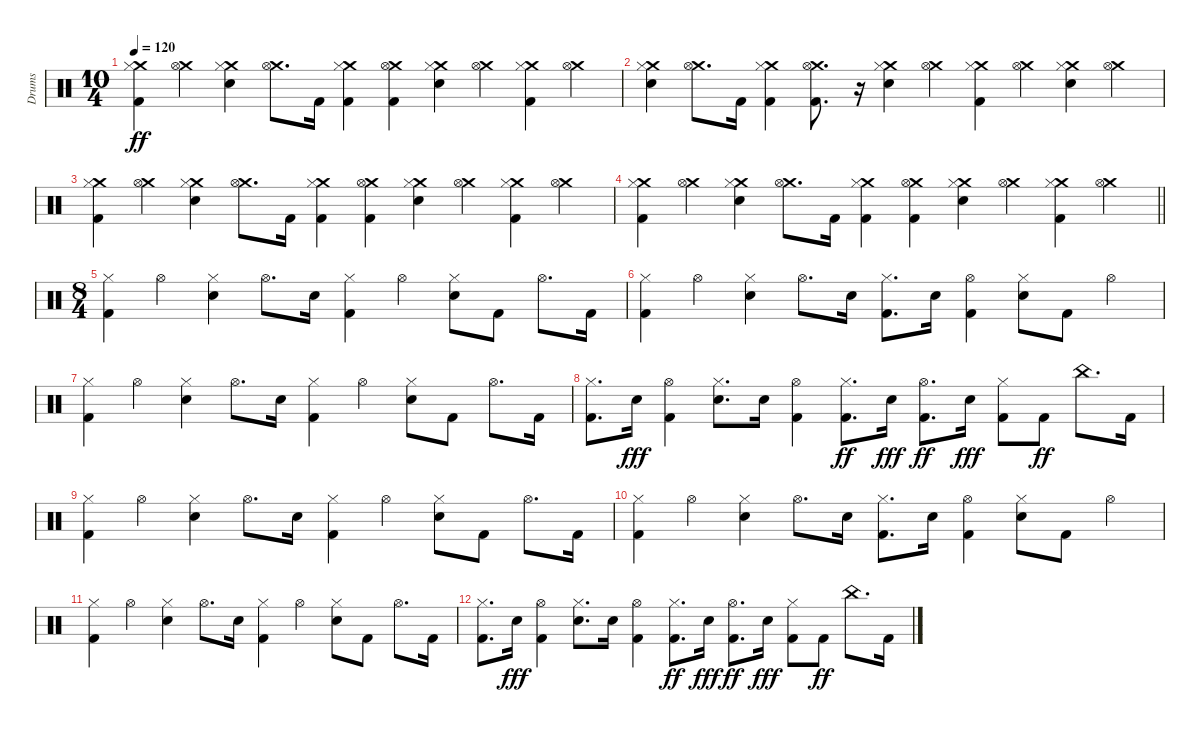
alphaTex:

\track ("Drums" "Drums") {instrument percussion}
\staff {score}
\articulation defaults
\ts (10 4)
\tempo 120
\clef neutral
\ks c
("Crash medium (hit)" "Hi-Hat (closed)" "Kick (hit) 2").4{dy ff} ("Crash medium (hit)" "Hi-Hat (open)").4 ("Crash medium (hit)" "Hi-Hat (closed)" "Electric Snare (hit)").4 ("Crash medium (hit)" "Hi-Hat (open)").8{d} "Kick (hit) 2".16 ("Crash medium (hit)" "Hi-Hat (closed)" "Kick (hit) 2").4 ("Crash medium (hit)" "Hi-Hat (open)" "Kick (hit) 2").4 ("Crash medium (hit)" "Hi-Hat (closed)" "Electric Snare (hit)").4 ("Crash medium (hit)" "Hi-Hat (open)").4 ("Crash medium (hit)" "Hi-Hat (closed)" "Kick (hit) 2").4 ("Crash medium (hit)" "Hi-Hat (open)").4 |
("Crash medium (hit)" "Hi-Hat (closed)" "Electric Snare (hit)").4 ("Crash medium (hit)" "Hi-Hat (open)").8{d} "Kick (hit) 2".16 ("Crash medium (hit)" "Hi-Hat (closed)" "Kick (hit) 2").4 ("Crash medium (hit)" "Hi-Hat (open)" "Kick (hit) 2").8{d} r.16 ("Crash medium (hit)" "Hi-Hat (closed)" "Electric Snare (hit)").4 ("Crash medium (hit)" "Hi-Hat (open)").4 ("Crash medium (hit)" "Hi-Hat (closed)" "Kick (hit) 2").4 ("Crash medium (hit)" "Hi-Hat (open)").4 ("Crash medium (hit)" "Hi-Hat (closed)" "Electric Snare (hit)").4 ("Crash medium (hit)" "Hi-Hat (open)").4 |
("Crash medium (hit)" "Hi-Hat (closed)" "Kick (hit) 2").4 ("Crash medium (hit)" "Hi-Hat (open)").4 ("Crash medium (hit)" "Hi-Hat (closed)" "Electric Snare (hit)").4 ("Crash medium (hit)" "Hi-Hat (open)").8{d} "Kick (hit) 2".16 ("Crash medium (hit)" "Hi-Hat (closed)" "Kick (hit) 2").4 ("Crash medium (hit)" "Hi-Hat (open)" "Kick (hit) 2").4 ("Crash medium (hit)" "Hi-Hat (closed)" "Electric Snare (hit)").4 ("Crash medium (hit)" "Hi-Hat (open)").4 ("Crash medium (hit)" "Hi-Hat (closed)" "Kick (hit) 2").4 ("Crash medium (hit)" "Hi-Hat (open)").4 |
\barLineRight lightlight
("Crash medium (hit)" "Hi-Hat (closed)" "Kick (hit) 2").4 ("Crash medium (hit)" "Hi-Hat (open)").4 ("Crash medium (hit)" "Hi-Hat (closed)" "Electric Snare (hit)").4 ("Crash medium (hit)" "Hi-Hat (open)").8{d} "Kick (hit) 2".16 ("Crash medium (hit)" "Hi-Hat (closed)" "Kick (hit) 2").4 ("Crash medium (hit)" "Hi-Hat (open)" "Kick (hit) 2").4 ("Crash medium (hit)" "Hi-Hat (closed)" "Electric Snare (hit)").4 ("Crash medium (hit)" "Hi-Hat (open)").4 ("Crash medium (hit)" "Hi-Hat (closed)" "Kick (hit) 2").4 ("Crash medium (hit)" "Hi-Hat (open)").4 |
\ts (8 4)
\section ("" "")
("Hi-Hat (closed)" "Kick (hit) 2").4 "Hi-Hat (open)".4 ("Hi-Hat (closed)" "Electric Snare (hit)").4 "Hi-Hat (open)".8{d} "Electric Snare (hit)".16 ("Hi-Hat (closed)" "Kick (hit) 2").4 "Hi-Hat (open)".4 ("Hi-Hat (closed)" "Electric Snare (hit)").8 "Kick (hit) 2".8 "Hi-Hat (open)".8{d} "Kick (hit) 2".16 |
("Hi-Hat (closed)" "Kick (hit) 2").4 "Hi-Hat (open)".4 ("Hi-Hat (closed)" "Electric Snare (hit)").4 "Hi-Hat (open)".8{d} "Electric Snare (hit)".16 ("Hi-Hat (closed)" "Kick (hit) 2").8{d} "Electric Snare (hit)".16 ("Hi-Hat (open)" "Kick (hit) 2").4 ("Hi-Hat (closed)" "Electric Snare (hit)").8 "Kick (hit) 2".8 "Hi-Hat (open)".4 |
("Hi-Hat (closed)" "Kick (hit) 2").4 "Hi-Hat (open)".4 ("Hi-Hat (closed)" "Electric Snare (hit)").4 "Hi-Hat (open)".8{d} "Electric Snare (hit)".16 ("Hi-Hat (closed)" "Kick (hit) 2").4 "Hi-Hat (open)".4 ("Hi-Hat (closed)" "Electric Snare (hit)").8 "Kick (hit) 2".8 "Hi-Hat (open)".8{d} "Kick (hit) 2".16 |
("Hi-Hat (closed)" "Kick (hit) 2").8{d} "Electric Snare (hit)".16{dy fff} ("Hi-Hat (open)" "Kick (hit) 2").4 ("Hi-Hat (closed)" "Electric Snare (hit)").8{d} "Electric Snare (hit)".16 ("Hi-Hat (open)" "Kick (hit) 2").4 ("Hi-Hat (closed)" "Kick (hit) 2").8{d dy ff} "Electric Snare (hit)".16{dy fff} ("Hi-Hat (open)" "Kick (hit) 2").8{d dy ff} "Electric Snare (hit)".16{dy fff} ("Hi-Hat (closed)" "Kick (hit) 2").8 "Kick (hit) 2".8{dy ff} "China (hit)".8{d} "Kick (hit) 2".16 |
("Hi-Hat (closed)" "Kick (hit) 2").4 "Hi-Hat (open)".4 ("Hi-Hat (closed)" "Electric Snare (hit)").4 "Hi-Hat (open)".8{d} "Electric Snare (hit)".16 ("Hi-Hat (closed)" "Kick (hit) 2").4 "Hi-Hat (open)".4 ("Hi-Hat (closed)" "Electric Snare (hit)").8 "Kick (hit) 2".8 "Hi-Hat (open)".8{d} "Kick (hit) 2".16 |
("Hi-Hat (closed)" "Kick (hit) 2").4 "Hi-Hat (open)".4 ("Hi-Hat (closed)" "Electric Snare (hit)").4 "Hi-Hat (open)".8{d} "Electric Snare (hit)".16 ("Hi-Hat (closed)" "Kick (hit) 2").8{d} "Electric Snare (hit)".16 ("Hi-Hat (open)" "Kick (hit) 2").4 ("Hi-Hat (closed)" "Electric Snare (hit)").8 "Kick (hit) 2".8 "Hi-Hat (open)".4 |
("Hi-Hat (closed)" "Kick (hit) 2").4{volume 0} "Hi-Hat (open)".4 ("Hi-Hat (closed)" "Electric Snare (hit)").4 "Hi-Hat (open)".8{d} "Electric Snare (hit)".16 ("Hi-Hat (closed)" "Kick (hit) 2").4 "Hi-Hat (open)".4 ("Hi-Hat (closed)" "Electric Snare (hit)").8 "Kick (hit) 2".8 "Hi-Hat (open)".8{d} "Kick (hit) 2".16 |
("Hi-Hat (closed)" "Kick (hit) 2").8{d} "Electric Snare (hit)".16{dy fff} ("Hi-Hat (open)" "Kick (hit) 2").4 ("Hi-Hat (closed)" "Electric Snare (hit)").8{d} "Electric Snare (hit)".16 ("Hi-Hat (open)" "Kick (hit) 2").4 ("Hi-Hat (closed)" "Kick (hit) 2").8{d dy ff} "Electric Snare (hit)".16{dy fff} ("Hi-Hat (open)" "Kick (hit) 2").8{d dy ff} "Electric Snare (hit)".16{dy fff} ("Hi-Hat (closed)" "Kick (hit) 2").8 "Kick (hit) 2".8{dy ff} "China (hit)".8{d} "Kick (hit) 2".16
